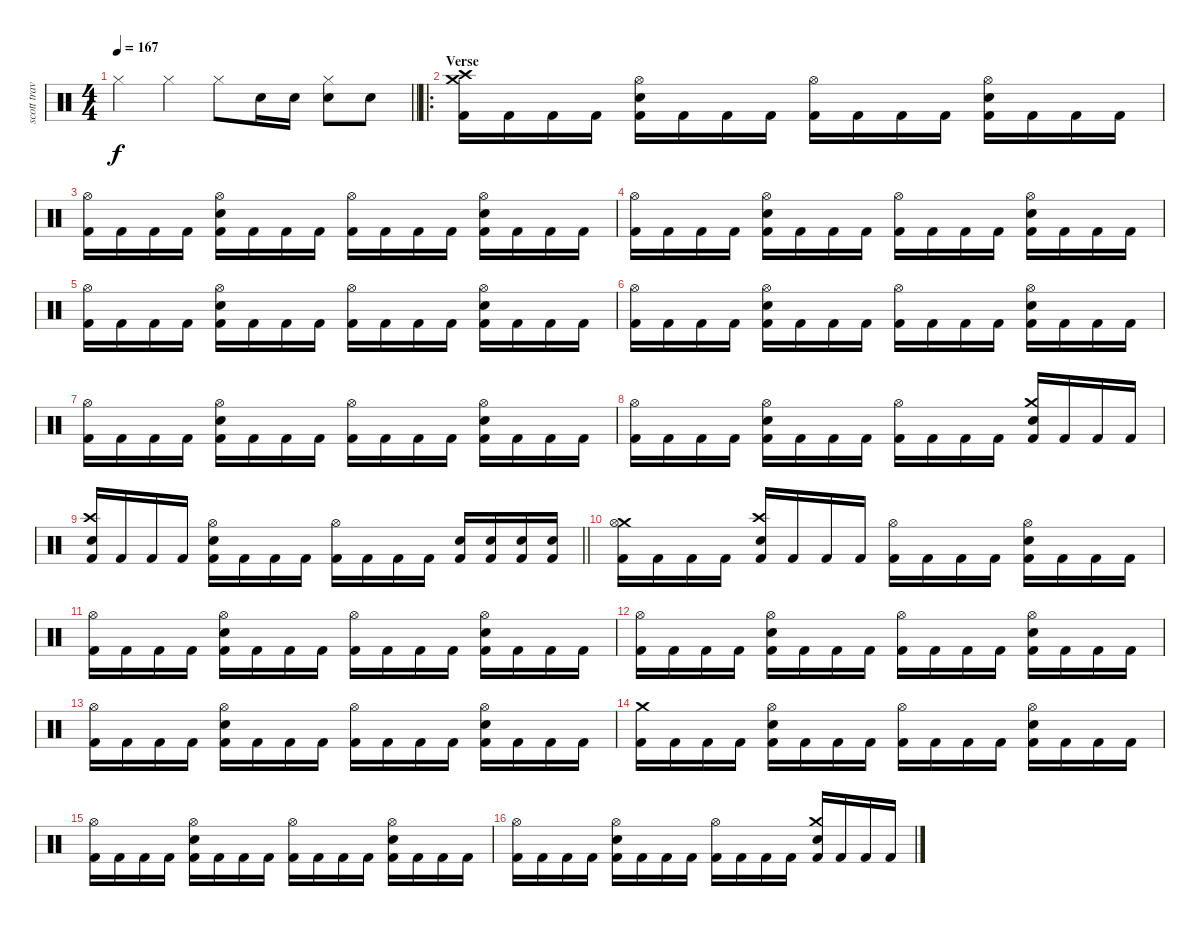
\track ("scott travis" "scott trav") {instrument percussion}
\staff {score}
\articulation defaults
\ts (4 4)
\tempo 167
\clef neutral
\barLineRight lightlight
\ks c "Hi-Hat (closed)".4{dy f} "Hi-Hat (closed)".4 "Hi-Hat (closed)".8 "Snare (hit) 2".16 "Snare (hit) 2".16
("Hi-Hat (closed)" "Snare (hit) 2").8 "Snare (hit) 2".8 |
\ro
\section ("" "Verse")
("Crash medium (hit)" "Crash high (hit)" "Kick (hit) 2").16 "Kick (hit) 2".16 "Kick (hit) 2".16 "Kick (hit) 2".16 ("Hi-Hat (open)" "Snare (hit) 2" "Kick (hit) 2").16 "Kick (hit) 2".16 "Kick (hit) 2".16 "Kick (hit) 2".16 ("Hi-Hat (open)" "Kick (hit) 2").16 "Kick (hit) 2".16 "Kick (hit) 2".16 "Kick (hit) 2".16 ("Hi-Hat (open)" "Snare (hit) 2" "Kick (hit) 2").16 "Kick (hit) 2".16 "Kick (hit) 2".16 "Kick (hit) 2".16 |
("Hi-Hat (open)" "Kick (hit) 2").16 "Kick (hit) 2".16 "Kick (hit) 2".16 "Kick (hit) 2".16 ("Hi-Hat (open)" "Snare (hit) 2" "Kick (hit) 2").16 "Kick (hit) 2".16 "Kick (hit) 2".16 "Kick (hit) 2".16 ("Hi-Hat (open)" "Kick (hit) 2").16 "Kick (hit) 2".16 "Kick (hit) 2".16 "Kick (hit) 2".16 ("Hi-Hat (open)" "Snare (hit) 2" "Kick (hit) 2").16 "Kick (hit) 2".16 "Kick (hit) 2".16 "Kick (hit) 2".16 |
("Hi-Hat (open)" "Kick (hit) 2").16 "Kick (hit) 2".16 "Kick (hit) 2".16 "Kick (hit) 2".16 ("Hi-Hat (open)" "Snare (hit) 2" "Kick (hit) 2").16 "Kick (hit) 2".16 "Kick (hit) 2".16 "Kick (hit) 2".16 ("Hi-Hat (open)" "Kick (hit) 2").16 "Kick (hit) 2".16 "Kick (hit) 2".16 "Kick (hit) 2".16 ("Hi-Hat (open)" "Snare (hit) 2" "Kick (hit) 2").16 "Kick (hit) 2".16 "Kick (hit) 2".16 "Kick (hit) 2".16 |
("Hi-Hat (open)" "Kick (hit) 2").16 "Kick (hit) 2".16 "Kick (hit) 2".16 "Kick (hit) 2".16 ("Hi-Hat (open)" "Snare (hit) 2" "Kick (hit) 2").16 "Kick (hit) 2".16 "Kick (hit) 2".16 "Kick (hit) 2".16 ("Hi-Hat (open)" "Kick (hit) 2").16 "Kick (hit) 2".16 "Kick (hit) 2".16 "Kick (hit) 2".16 ("Hi-Hat (open)" "Snare (hit) 2" "Kick (hit) 2").16 "Kick (hit) 2".16 "Kick (hit) 2".16 "Kick (hit) 2".16 |
("Hi-Hat (open)" "Kick (hit) 2").16 "Kick (hit) 2".16 "Kick (hit) 2".16 "Kick (hit) 2".16 ("Hi-Hat (open)" "Snare (hit) 2" "Kick (hit) 2").16 "Kick (hit) 2".16 "Kick (hit) 2".16 "Kick (hit) 2".16 ("Hi-Hat (open)" "Kick (hit) 2").16 "Kick (hit) 2".16 "Kick (hit) 2".16 "Kick (hit) 2".16 ("Hi-Hat (open)" "Snare (hit) 2" "Kick (hit) 2").16 "Kick (hit) 2".16 "Kick (hit) 2".16 "Kick (hit) 2".16 |
("Hi-Hat (open)" "Kick (hit) 2").16 "Kick (hit) 2".16 "Kick (hit) 2".16 "Kick (hit) 2".16 ("Hi-Hat (open)" "Snare (hit) 2" "Kick (hit) 2").16 "Kick (hit) 2".16 "Kick (hit) 2".16 "Kick (hit) 2".16 ("Hi-Hat (open)" "Kick (hit) 2").16 "Kick (hit) 2".16 "Kick (hit) 2".16 "Kick (hit) 2".16 ("Hi-Hat (open)" "Snare (hit) 2" "Kick (hit) 2").16 "Kick (hit) 2".16 "Kick (hit) 2".16 "Kick (hit) 2".16 |
("Hi-Hat (open)" "Kick (hit) 2").16 "Kick (hit) 2".16 "Kick (hit) 2".16 "Kick (hit) 2".16 ("Hi-Hat (open)" "Snare (hit) 2" "Kick (hit) 2").16 "Kick (hit) 2".16 "Kick (hit) 2".16 "Kick (hit) 2".16 ("Hi-Hat (open)" "Kick (hit) 2").16 "Kick (hit) 2".16 "Kick (hit) 2".16 "Kick (hit) 2".16 ("Crash medium (hit)" "Snare (hit) 2" "Kick (hit) 2").16 "Kick (hit) 2".16 "Kick (hit) 2".16 "Kick (hit) 2".16 |
\barLineRight lightlight
("Crash high (hit)" "Snare (hit) 2" "Kick (hit) 2").16 "Kick (hit) 2".16 "Kick (hit) 2".16 "Kick (hit) 2".16 ("Hi-Hat (open)" "Snare (hit) 2" "Kick (hit) 2").16 "Kick (hit) 2".16 "Kick (hit) 2".16 "Kick (hit) 2".16 ("Hi-Hat (open)" "Kick (hit) 2").16 "Kick (hit) 2".16 "Kick (hit) 2".16 "Kick (hit) 2".16 ("Snare (hit) 2" "Kick (hit) 2").16 ("Snare (hit) 2" "Kick (hit) 2").16 ("Snare (hit) 2" "Kick (hit) 2").16 ("Snare (hit) 2" "Kick (hit) 2").16 |
("Crash medium (hit)" "Hi-Hat (open)" "Kick (hit) 2").16 "Kick (hit) 2".16 "Kick (hit) 2".16 "Kick (hit) 2".16 ("Crash high (hit)" "Snare (hit) 2" "Kick (hit) 2").16 "Kick (hit) 2".16 "Kick (hit) 2".16 "Kick (hit) 2".16 ("Hi-Hat (open)" "Kick (hit) 2").16 "Kick (hit) 2".16 "Kick (hit) 2".16 "Kick (hit) 2".16 ("Hi-Hat (open)" "Snare (hit) 2" "Kick (hit) 2").16 "Kick (hit) 2".16 "Kick (hit) 2".16 "Kick (hit) 2".16 |
("Hi-Hat (open)" "Kick (hit) 2").16 "Kick (hit) 2".16 "Kick (hit) 2".16 "Kick (hit) 2".16 ("Hi-Hat (open)" "Snare (hit) 2" "Kick (hit) 2").16 "Kick (hit) 2".16 "Kick (hit) 2".16 "Kick (hit) 2".16 ("Hi-Hat (open)" "Kick (hit) 2").16 "Kick (hit) 2".16 "Kick (hit) 2".16 "Kick (hit) 2".16 ("Hi-Hat (open)" "Snare (hit) 2" "Kick (hit) 2").16 "Kick (hit) 2".16 "Kick (hit) 2".16 "Kick (hit) 2".16 |
("Hi-Hat (open)" "Kick (hit) 2").16 "Kick (hit) 2".16 "Kick (hit) 2".16 "Kick (hit) 2".16 ("Hi-Hat (open)" "Snare (hit) 2" "Kick (hit) 2").16 "Kick (hit) 2".16 "Kick (hit) 2".16 "Kick (hit) 2".16 ("Hi-Hat (open)" "Kick (hit) 2").16 "Kick (hit) 2".16 "Kick (hit) 2".16 "Kick (hit) 2".16 ("Hi-Hat (open)" "Snare (hit) 2" "Kick (hit) 2").16 "Kick (hit) 2".16 "Kick (hit) 2".16 "Kick (hit) 2".16 |
("Hi-Hat (open)" "Kick (hit) 2").16 "Kick (hit) 2".16 "Kick (hit) 2".16 "Kick (hit) 2".16 ("Hi-Hat (open)" "Snare (hit) 2" "Kick (hit) 2").16 "Kick (hit) 2".16 "Kick (hit) 2".16 "Kick (hit) 2".16 ("Hi-Hat (open)" "Kick (hit) 2").16 "Kick (hit) 2".16 "Kick (hit) 2".16 "Kick (hit) 2".16 ("Hi-Hat (open)" "Snare (hit) 2" "Kick (hit) 2").16 "Kick (hit) 2".16 "Kick (hit) 2".16 "Kick (hit) 2".16 |
("Crash medium (hit)" "Kick (hit) 2").16 "Kick (hit) 2".16 "Kick (hit) 2".16 "Kick (hit) 2".16 ("Hi-Hat (open)" "Snare (hit) 2" "Kick (hit) 2").16 "Kick (hit) 2".16 "Kick (hit) 2".16 "Kick (hit) 2".16 ("Hi-Hat (open)" "Kick (hit) 2").16 "Kick (hit) 2".16 "Kick (hit) 2".16 "Kick (hit) 2".16 ("Hi-Hat (open)" "Snare (hit) 2" "Kick (hit) 2").16 "Kick (hit) 2".16 "Kick (hit) 2".16 "Kick (hit) 2".16 |
("Hi-Hat (open)" "Kick (hit) 2").16 "Kick (hit) 2".16 "Kick (hit) 2".16 "Kick (hit) 2".16 ("Hi-Hat (open)" "Snare (hit) 2" "Kick (hit) 2").16 "Kick (hit) 2".16 "Kick (hit) 2".16 "Kick (hit) 2".16 ("Hi-Hat (open)" "Kick (hit) 2").16 "Kick (hit) 2".16 "Kick (hit) 2".16 "Kick (hit) 2".16 ("Hi-Hat (open)" "Snare (hit) 2" "Kick (hit) 2").16 "Kick (hit) 2".16 "Kick (hit) 2".16 "Kick (hit) 2".16 |
("Hi-Hat (open)" "Kick (hit) 2").16 "Kick (hit) 2".16 "Kick (hit) 2".16 "Kick (hit) 2".16 ("Hi-Hat (open)" "Snare (hit) 2" "Kick (hit) 2").16 "Kick (hit) 2".16 "Kick (hit) 2".16 "Kick (hit) 2".16 ("Hi-Hat (open)" "Kick (hit) 2").16 "Kick (hit) 2".16 "Kick (hit) 2".16 "Kick (hit) 2".16 ("Crash medium (hit)" "Snare (hit) 2" "Kick (hit) 2").16 "Kick (hit) 2".16 "Kick (hit) 2".16 "Kick (hit) 2".16
